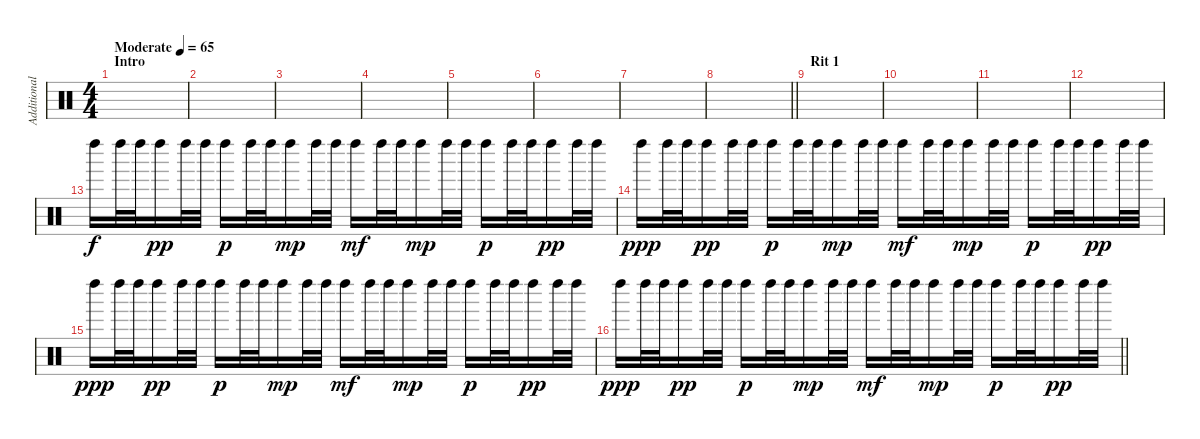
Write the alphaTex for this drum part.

\track ("Additional Percussions" "Additional") {instrument percussion}
\staff {score}
\articulation defaults
\ts (4 4)
\section ("" "Intro")
\tempo (65 "Moderate")
\clef neutral
\ks c
|
|
|
|
|
|
|
\barLineRight lightlight
|
\section ("" "Rit 1")
|
|
|
|
"Left Maraca (hit)".16 "Left Maraca (hit)".32 "Left Maraca (hit)".32 "Left Maraca (hit)".16{dy pp} "Left Maraca (hit)".32 "Left Maraca (hit)".32 "Left Maraca (hit)".16{dy p} "Left Maraca (hit)".32 "Left Maraca (hit)".32 "Left Maraca (hit)".16{dy mp} "Left Maraca (hit)".32 "Left Maraca (hit)".32 "Left Maraca (hit)".16{dy mf} "Left Maraca (hit)".32 "Left Maraca (hit)".32 "Left Maraca (hit)".16{dy mp} "Left Maraca (hit)".32 "Left Maraca (hit)".32 "Left Maraca (hit)".16{dy p} "Left Maraca (hit)".32 "Left Maraca (hit)".32 "Left Maraca (hit)".16{dy pp} "Left Maraca (hit)".32 "Left Maraca (hit)".32 |
"Left Maraca (hit)".16{dy ppp} "Left Maraca (hit)".32 "Left Maraca (hit)".32 "Left Maraca (hit)".16{dy pp} "Left Maraca (hit)".32 "Left Maraca (hit)".32 "Left Maraca (hit)".16{dy p} "Left Maraca (hit)".32 "Left Maraca (hit)".32 "Left Maraca (hit)".16{dy mp} "Left Maraca (hit)".32 "Left Maraca (hit)".32 "Left Maraca (hit)".16{dy mf} "Left Maraca (hit)".32 "Left Maraca (hit)".32 "Left Maraca (hit)".16{dy mp} "Left Maraca (hit)".32 "Left Maraca (hit)".32 "Left Maraca (hit)".16{dy p} "Left Maraca (hit)".32 "Left Maraca (hit)".32 "Left Maraca (hit)".16{dy pp} "Left Maraca (hit)".32 "Left Maraca (hit)".32 |
"Left Maraca (hit)".16{dy ppp} "Left Maraca (hit)".32 "Left Maraca (hit)".32 "Left Maraca (hit)".16{dy pp} "Left Maraca (hit)".32 "Left Maraca (hit)".32 "Left Maraca (hit)".16{dy p} "Left Maraca (hit)".32 "Left Maraca (hit)".32 "Left Maraca (hit)".16{dy mp} "Left Maraca (hit)".32 "Left Maraca (hit)".32 "Left Maraca (hit)".16{dy mf} "Left Maraca (hit)".32 "Left Maraca (hit)".32 "Left Maraca (hit)".16{dy mp} "Left Maraca (hit)".32 "Left Maraca (hit)".32 "Left Maraca (hit)".16{dy p} "Left Maraca (hit)".32 "Left Maraca (hit)".32 "Left Maraca (hit)".16{dy pp} "Left Maraca (hit)".32 "Left Maraca (hit)".32 |
\barLineRight lightlight "Left Maraca (hit)".16{dy ppp} "Left Maraca (hit)".32 "Left Maraca (hit)".32 "Left Maraca (hit)".16{dy pp} "Left Maraca (hit)".32 "Left Maraca (hit)".32 "Left Maraca (hit)".16{dy p} "Left Maraca (hit)".32 "Left Maraca (hit)".32 "Left Maraca (hit)".16{dy mp} "Left Maraca (hit)".32 "Left Maraca (hit)".32 "Left Maraca (hit)".16{dy mf} "Left Maraca (hit)".32 "Left Maraca (hit)".32 "Left Maraca (hit)".16{dy mp} "Left Maraca (hit)".32 "Left Maraca (hit)".32 "Left Maraca (hit)".16{dy p} "Left Maraca (hit)".32 "Left Maraca (hit)".32 "Left Maraca (hit)".16{dy pp} "Left Maraca (hit)".32 "Left Maraca (hit)".32
